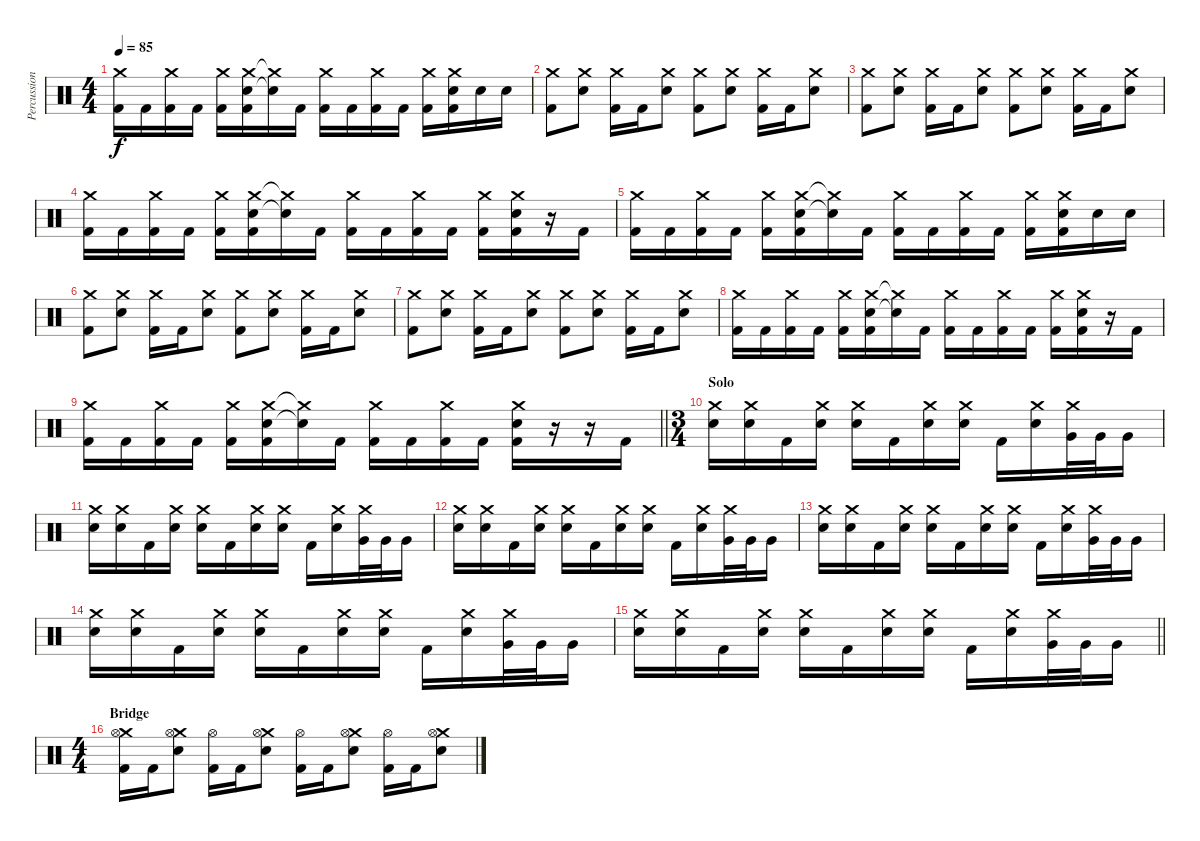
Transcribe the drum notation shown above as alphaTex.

\track ("Percussion" "Percussion") {instrument percussion}
\staff {score}
\articulation defaults
\ts (4 4)
\tempo 85
\clef neutral
\ks c
("Crash medium (hit)" "Kick (hit) 2").16{dy f} "Kick (hit) 2".16 ("Crash medium (hit)" "Kick (hit) 2").16 "Kick (hit) 2".16 ("Crash medium (hit)" "Kick (hit) 2").16 ("Crash medium (hit)" "Electric Snare (hit)" "Kick (hit) 2").16 ("Crash medium (hit)"{t} "Electric Snare (hit)"{t}).16 "Kick (hit) 2".16 ("Crash medium (hit)" "Kick (hit) 2").16 "Kick (hit) 2".16 ("Crash medium (hit)" "Kick (hit) 2").16 "Kick (hit) 2".16 ("Crash medium (hit)" "Kick (hit) 2").16 ("Crash medium (hit)" "Electric Snare (hit)" "Kick (hit) 2").16 "Electric Snare (hit)".16 "Electric Snare (hit)".16 |
("Crash medium (hit)" "Kick (hit) 2").8 ("Crash medium (hit)" "Electric Snare (hit)").8 ("Crash medium (hit)" "Kick (hit) 2").16 "Kick (hit) 2".16 ("Crash medium (hit)" "Electric Snare (hit)").8 ("Crash medium (hit)" "Kick (hit) 2").8 ("Crash medium (hit)" "Electric Snare (hit)").8 ("Crash medium (hit)" "Kick (hit) 2").16 "Kick (hit) 2".16 ("Crash medium (hit)" "Electric Snare (hit)").8 |
("Crash medium (hit)" "Kick (hit) 2").8 ("Crash medium (hit)" "Electric Snare (hit)").8 ("Crash medium (hit)" "Kick (hit) 2").16 "Kick (hit) 2".16 ("Crash medium (hit)" "Electric Snare (hit)").8 ("Crash medium (hit)" "Kick (hit) 2").8 ("Crash medium (hit)" "Electric Snare (hit)").8 ("Crash medium (hit)" "Kick (hit) 2").16 "Kick (hit) 2".16 ("Crash medium (hit)" "Electric Snare (hit)").8 |
("Crash medium (hit)" "Kick (hit) 2").16 "Kick (hit) 2".16 ("Crash medium (hit)" "Kick (hit) 2").16 "Kick (hit) 2".16 ("Crash medium (hit)" "Kick (hit) 2").16 ("Crash medium (hit)" "Electric Snare (hit)" "Kick (hit) 2").16 ("Crash medium (hit)"{t} "Electric Snare (hit)"{t}).16 "Kick (hit) 2".16 ("Crash medium (hit)" "Kick (hit) 2").16 "Kick (hit) 2".16 ("Crash medium (hit)" "Kick (hit) 2").16 "Kick (hit) 2".16 ("Crash medium (hit)" "Kick (hit) 2").16 ("Crash medium (hit)" "Electric Snare (hit)" "Kick (hit) 2").16 r.16 "Kick (hit) 2".16 |
("Crash medium (hit)" "Kick (hit) 2").16 "Kick (hit) 2".16 ("Crash medium (hit)" "Kick (hit) 2").16 "Kick (hit) 2".16 ("Crash medium (hit)" "Kick (hit) 2").16 ("Crash medium (hit)" "Electric Snare (hit)" "Kick (hit) 2").16 ("Crash medium (hit)"{t} "Electric Snare (hit)"{t}).16 "Kick (hit) 2".16 ("Crash medium (hit)" "Kick (hit) 2").16 "Kick (hit) 2".16 ("Crash medium (hit)" "Kick (hit) 2").16 "Kick (hit) 2".16 ("Crash medium (hit)" "Kick (hit) 2").16 ("Crash medium (hit)" "Electric Snare (hit)" "Kick (hit) 2").16 "Electric Snare (hit)".16 "Electric Snare (hit)".16 |
("Crash medium (hit)" "Kick (hit) 2").8 ("Crash medium (hit)" "Electric Snare (hit)").8 ("Crash medium (hit)" "Kick (hit) 2").16 "Kick (hit) 2".16 ("Crash medium (hit)" "Electric Snare (hit)").8 ("Crash medium (hit)" "Kick (hit) 2").8 ("Crash medium (hit)" "Electric Snare (hit)").8 ("Crash medium (hit)" "Kick (hit) 2").16 "Kick (hit) 2".16 ("Crash medium (hit)" "Electric Snare (hit)").8 |
("Crash medium (hit)" "Kick (hit) 2").8 ("Crash medium (hit)" "Electric Snare (hit)").8 ("Crash medium (hit)" "Kick (hit) 2").16 "Kick (hit) 2".16 ("Crash medium (hit)" "Electric Snare (hit)").8 ("Crash medium (hit)" "Kick (hit) 2").8 ("Crash medium (hit)" "Electric Snare (hit)").8 ("Crash medium (hit)" "Kick (hit) 2").16 "Kick (hit) 2".16 ("Crash medium (hit)" "Electric Snare (hit)").8 |
("Crash medium (hit)" "Kick (hit) 2").16 "Kick (hit) 2".16 ("Crash medium (hit)" "Kick (hit) 2").16 "Kick (hit) 2".16 ("Crash medium (hit)" "Kick (hit) 2").16 ("Crash medium (hit)" "Electric Snare (hit)" "Kick (hit) 2").16 ("Crash medium (hit)"{t} "Electric Snare (hit)"{t}).16 "Kick (hit) 2".16 ("Crash medium (hit)" "Kick (hit) 2").16 "Kick (hit) 2".16 ("Crash medium (hit)" "Kick (hit) 2").16 "Kick (hit) 2".16 ("Crash medium (hit)" "Kick (hit) 2").16 ("Crash medium (hit)" "Electric Snare (hit)" "Kick (hit) 2").16 r.16 "Kick (hit) 2".16 |
\barLineRight lightlight
("Crash medium (hit)" "Kick (hit) 2").16 "Kick (hit) 2".16 ("Crash medium (hit)" "Kick (hit) 2").16 "Kick (hit) 2".16 ("Crash medium (hit)" "Kick (hit) 2").16 ("Crash medium (hit)" "Electric Snare (hit)" "Kick (hit) 2").16 ("Crash medium (hit)"{t} "Electric Snare (hit)"{t}).16 "Kick (hit) 2".16 ("Crash medium (hit)" "Kick (hit) 2").16 "Kick (hit) 2".16 ("Crash medium (hit)" "Kick (hit) 2").16 "Kick (hit) 2".16 ("Crash medium (hit)" "Electric Snare (hit)" "Kick (hit) 2").16 r.16 r.16 "Kick (hit) 2".16 |
\ts (3 4)
\section ("" "Solo")
("Crash medium (hit)" "Electric Snare (hit)").16 ("Crash medium (hit)" "Electric Snare (hit)").16 "Kick (hit) 2".16 ("Crash medium (hit)" "Electric Snare (hit)").16 ("Crash medium (hit)" "Electric Snare (hit)").16 "Kick (hit) 2".16 ("Crash medium (hit)" "Electric Snare (hit)").16 ("Crash medium (hit)" "Electric Snare (hit)").16 "Kick (hit) 2".16 ("Crash medium (hit)" "Electric Snare (hit)").16 ("Crash medium (hit)" "Very Low Tom (hit)").32 "Very Low Tom (hit)".32 "Very Low Tom (hit)".16 |
("Crash medium (hit)" "Electric Snare (hit)").16 ("Crash medium (hit)" "Electric Snare (hit)").16 "Kick (hit) 2".16 ("Crash medium (hit)" "Electric Snare (hit)").16 ("Crash medium (hit)" "Electric Snare (hit)").16 "Kick (hit) 2".16 ("Crash medium (hit)" "Electric Snare (hit)").16 ("Crash medium (hit)" "Electric Snare (hit)").16 "Kick (hit) 2".16 ("Crash medium (hit)" "Electric Snare (hit)").16 ("Crash medium (hit)" "Very Low Tom (hit)").32 "Very Low Tom (hit)".32 "Very Low Tom (hit)".16 |
("Crash medium (hit)" "Electric Snare (hit)").16 ("Crash medium (hit)" "Electric Snare (hit)").16 "Kick (hit) 2".16 ("Crash medium (hit)" "Electric Snare (hit)").16 ("Crash medium (hit)" "Electric Snare (hit)").16 "Kick (hit) 2".16 ("Crash medium (hit)" "Electric Snare (hit)").16 ("Crash medium (hit)" "Electric Snare (hit)").16 "Kick (hit) 2".16 ("Crash medium (hit)" "Electric Snare (hit)").16 ("Crash medium (hit)" "Very Low Tom (hit)").32 "Very Low Tom (hit)".32 "Very Low Tom (hit)".16 |
("Crash medium (hit)" "Electric Snare (hit)").16 ("Crash medium (hit)" "Electric Snare (hit)").16 "Kick (hit) 2".16 ("Crash medium (hit)" "Electric Snare (hit)").16 ("Crash medium (hit)" "Electric Snare (hit)").16 "Kick (hit) 2".16 ("Crash medium (hit)" "Electric Snare (hit)").16 ("Crash medium (hit)" "Electric Snare (hit)").16 "Kick (hit) 2".16 ("Crash medium (hit)" "Electric Snare (hit)").16 ("Crash medium (hit)" "Very Low Tom (hit)").32 "Very Low Tom (hit)".32 "Very Low Tom (hit)".16 |
("Crash medium (hit)" "Electric Snare (hit)").16 ("Crash medium (hit)" "Electric Snare (hit)").16 "Kick (hit) 2".16 ("Crash medium (hit)" "Electric Snare (hit)").16 ("Crash medium (hit)" "Electric Snare (hit)").16 "Kick (hit) 2".16 ("Crash medium (hit)" "Electric Snare (hit)").16 ("Crash medium (hit)" "Electric Snare (hit)").16 "Kick (hit) 2".16 ("Crash medium (hit)" "Electric Snare (hit)").16 ("Crash medium (hit)" "Very Low Tom (hit)").32 "Very Low Tom (hit)".32 "Very Low Tom (hit)".16 |
\barLineRight lightlight
("Crash medium (hit)" "Electric Snare (hit)").16 ("Crash medium (hit)" "Electric Snare (hit)").16 "Kick (hit) 2".16 ("Crash medium (hit)" "Electric Snare (hit)").16 ("Crash medium (hit)" "Electric Snare (hit)").16 "Kick (hit) 2".16 ("Crash medium (hit)" "Electric Snare (hit)").16 ("Crash medium (hit)" "Electric Snare (hit)").16 "Kick (hit) 2".16 ("Crash medium (hit)" "Electric Snare (hit)").16 ("Crash medium (hit)" "Very Low Tom (hit)").32 "Very Low Tom (hit)".32 "Very Low Tom (hit)".16 |
\ts (4 4)
\section ("" "Bridge")
("Crash medium (hit)" "Hi-Hat (open)" "Kick (hit) 2").16 "Kick (hit) 2".16 ("Crash medium (hit)" "Hi-Hat (open)" "Electric Snare (hit)").8 ("Hi-Hat (open)" "Kick (hit) 2").16 "Kick (hit) 2".16 ("Crash medium (hit)" "Hi-Hat (open)" "Electric Snare (hit)").8 ("Hi-Hat (open)" "Kick (hit) 2").16 "Kick (hit) 2".16 ("Crash medium (hit)" "Hi-Hat (open)" "Electric Snare (hit)").8 ("Hi-Hat (open)" "Kick (hit) 2").16 "Kick (hit) 2".16 ("Crash medium (hit)" "Hi-Hat (open)" "Electric Snare (hit)").8
